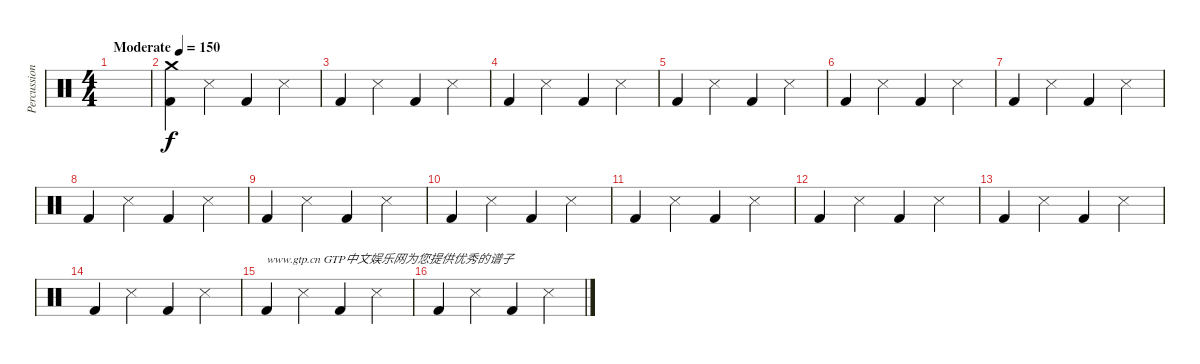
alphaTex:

\track ("Percussion" "Percussion") {instrument percussion}
\staff {score}
\articulation defaults
\ts (4 4)
\tempo (150 "Moderate")
\clef neutral
\ks c
|
("Kick (hit) 2" "Crash medium (hit)").4 "Snare (side stick) 3".4 "Kick (hit) 2".4 "Snare (side stick) 3".4 |
"Kick (hit) 2".4 "Snare (side stick) 3".4 "Kick (hit) 2".4 "Snare (side stick) 3".4 |
"Kick (hit) 2".4 "Snare (side stick) 3".4 "Kick (hit) 2".4 "Snare (side stick) 3".4 |
"Kick (hit) 2".4 "Snare (side stick) 3".4 "Kick (hit) 2".4 "Snare (side stick) 3".4 |
"Kick (hit) 2".4 "Snare (side stick) 3".4 "Kick (hit) 2".4 "Snare (side stick) 3".4 |
"Kick (hit) 2".4 "Snare (side stick) 3".4 "Kick (hit) 2".4 "Snare (side stick) 3".4 |
"Kick (hit) 2".4 "Snare (side stick) 3".4 "Kick (hit) 2".4 "Snare (side stick) 3".4 |
"Kick (hit) 2".4 "Snare (side stick) 3".4 "Kick (hit) 2".4 "Snare (side stick) 3".4 |
"Kick (hit) 2".4 "Snare (side stick) 3".4 "Kick (hit) 2".4 "Snare (side stick) 3".4 |
"Kick (hit) 2".4 "Snare (side stick) 3".4 "Kick (hit) 2".4 "Snare (side stick) 3".4 |
"Kick (hit) 2".4 "Snare (side stick) 3".4 "Kick (hit) 2".4 "Snare (side stick) 3".4 |
"Kick (hit) 2".4 "Snare (side stick) 3".4 "Kick (hit) 2".4 "Snare (side stick) 3".4 |
"Kick (hit) 2".4 "Snare (side stick) 3".4 "Kick (hit) 2".4 "Snare (side stick) 3".4 |
"Kick (hit) 2".4{txt "www.gtp.cn GTP中文娱乐网为您提供优秀的谱子"} "Snare (side stick) 3".4 "Kick (hit) 2".4 "Snare (side stick) 3".4 |
"Kick (hit) 2".4 "Snare (side stick) 3".4 "Kick (hit) 2".4 "Snare (side stick) 3".4
